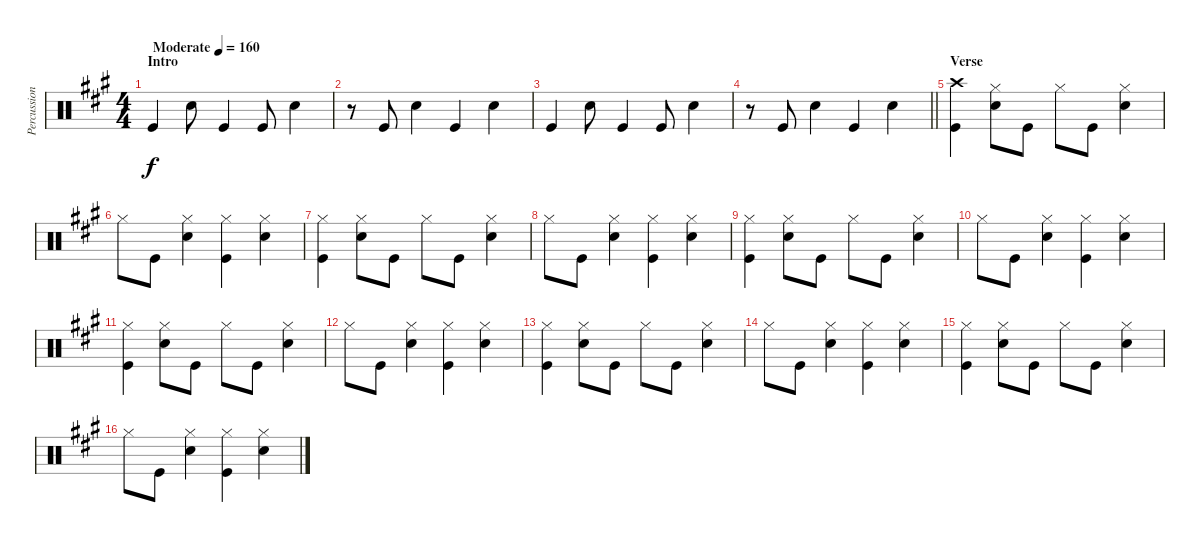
\track ("Percussion" "Percussion") {instrument percussion}
\staff {score}
\articulation defaults
\ts (4 4)
\section ("" "Intro")
\tempo (160 "Moderate")
\clef neutral
\ks a "Kick (hit)".4{dy f} "Snare (hit) 2".8 "Kick (hit)".4 "Kick (hit)".8 "Snare (hit) 2".4
|
r.8 "Kick (hit)".8 "Snare (hit) 2".4 "Kick (hit)".4 "Snare (hit) 2".4 |
"Kick (hit)".4 "Snare (hit) 2".8 "Kick (hit)".4 "Kick (hit)".8 "Snare (hit) 2".4 |
\barLineRight lightlight
r.8 "Kick (hit)".8 "Snare (hit) 2".4 "Kick (hit)".4 "Snare (hit) 2".4 |
\section ("" "Verse")
("Kick (hit)" "Crash high (hit)").4 ("Snare (hit) 2" "Hi-Hat (closed)").8 "Kick (hit)".8 "Hi-Hat (closed)".8 "Kick (hit)".8 ("Snare (hit) 2" "Hi-Hat (closed)").4 |
"Hi-Hat (closed)".8 "Kick (hit)".8 ("Snare (hit) 2" "Hi-Hat (closed)").4 ("Kick (hit)" "Hi-Hat (closed)").4 ("Snare (hit) 2" "Hi-Hat (closed)").4 |
("Kick (hit)" "Hi-Hat (closed)").4 ("Snare (hit) 2" "Hi-Hat (closed)").8 "Kick (hit)".8 "Hi-Hat (closed)".8 "Kick (hit)".8 ("Snare (hit) 2" "Hi-Hat (closed)").4 |
"Hi-Hat (closed)".8 "Kick (hit)".8 ("Snare (hit) 2" "Hi-Hat (closed)").4 ("Kick (hit)" "Hi-Hat (closed)").4 ("Snare (hit) 2" "Hi-Hat (closed)").4 |
("Hi-Hat (closed)" "Kick (hit)").4 ("Snare (hit) 2" "Hi-Hat (closed)").8 "Kick (hit)".8 "Hi-Hat (closed)".8 "Kick (hit)".8 ("Snare (hit) 2" "Hi-Hat (closed)").4 |
"Hi-Hat (closed)".8 "Kick (hit)".8 ("Snare (hit) 2" "Hi-Hat (closed)").4 ("Kick (hit)" "Hi-Hat (closed)").4 ("Snare (hit) 2" "Hi-Hat (closed)").4 |
("Hi-Hat (closed)" "Kick (hit)").4 ("Snare (hit) 2" "Hi-Hat (closed)").8 "Kick (hit)".8 "Hi-Hat (closed)".8 "Kick (hit)".8 ("Snare (hit) 2" "Hi-Hat (closed)").4 |
"Hi-Hat (closed)".8 "Kick (hit)".8 ("Snare (hit) 2" "Hi-Hat (closed)").4 ("Kick (hit)" "Hi-Hat (closed)").4 ("Snare (hit) 2" "Hi-Hat (closed)").4 |
("Kick (hit)" "Hi-Hat (closed)").4 ("Snare (hit) 2" "Hi-Hat (closed)").8 "Kick (hit)".8 "Hi-Hat (closed)".8 "Kick (hit)".8 ("Snare (hit) 2" "Hi-Hat (closed)").4 |
"Hi-Hat (closed)".8 "Kick (hit)".8 ("Snare (hit) 2" "Hi-Hat (closed)").4 ("Kick (hit)" "Hi-Hat (closed)").4 ("Snare (hit) 2" "Hi-Hat (closed)").4 |
("Hi-Hat (closed)" "Kick (hit)").4 ("Snare (hit) 2" "Hi-Hat (closed)").8 "Kick (hit)".8 "Hi-Hat (closed)".8 "Kick (hit)".8 ("Snare (hit) 2" "Hi-Hat (closed)").4 |
"Hi-Hat (closed)".8 "Kick (hit)".8 ("Snare (hit) 2" "Hi-Hat (closed)").4 ("Kick (hit)" "Hi-Hat (closed)").4 ("Snare (hit) 2" "Hi-Hat (closed)").4
